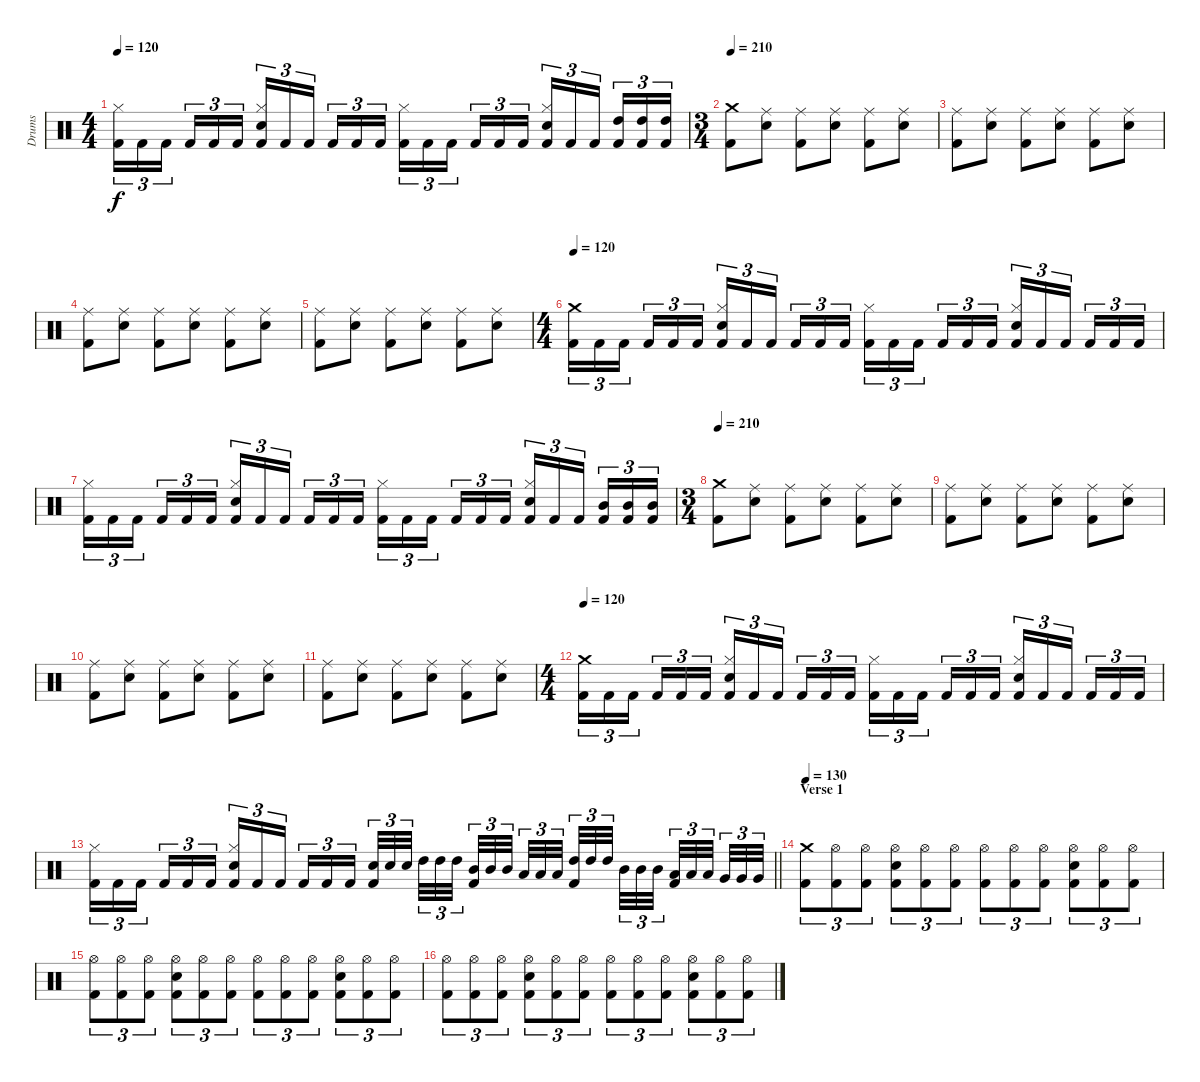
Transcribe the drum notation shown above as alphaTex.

\track ("Drums" "Drums") {instrument percussion}
\staff {score}
\articulation defaults
\ts (4 4)
\tempo 120
\clef neutral
\ks c
("Kick (hit) 2" "Hi-Hat (closed)").16{tu (3 2) dy f} "Kick (hit) 2".16{tu (3 2)} "Kick (hit) 2".16{tu (3 2) beam splitsecondary} "Kick (hit) 2".16{tu (3 2)} "Kick (hit) 2".16{tu (3 2)} "Kick (hit) 2".16{tu (3 2)} ("Kick (hit) 2" "Snare (hit) 2" "Hi-Hat (closed)").16{tu (3 2)} "Kick (hit) 2".16{tu (3 2)} "Kick (hit) 2".16{tu (3 2) beam splitsecondary} "Kick (hit) 2".16{tu (3 2)} "Kick (hit) 2".16{tu (3 2)} "Kick (hit) 2".16{tu (3 2)} ("Kick (hit) 2" "Hi-Hat (closed)").16{tu (3 2)} "Kick (hit) 2".16{tu (3 2)} "Kick (hit) 2".16{tu (3 2) beam splitsecondary} "Kick (hit) 2".16{tu (3 2)} "Kick (hit) 2".16{tu (3 2)} "Kick (hit) 2".16{tu (3 2)} ("Kick (hit) 2" "Snare (hit) 2" "Hi-Hat (closed)").16{tu (3 2)} "Kick (hit) 2".16{tu (3 2)} "Kick (hit) 2".16{tu (3 2) beam splitsecondary} ("Kick (hit) 2" "High Tom (hit)").16{tu (3 2)} ("Kick (hit) 2" "High Tom (hit)").16{tu (3 2)} ("Kick (hit) 2" "High Tom (hit)").16{tu (3 2)} |
\ts (3 4)
\tempo 210
("Kick (hit) 2" "Crash medium (hit)").8 ("Snare (hit) 2" "Ride (middle)").8 ("Kick (hit) 2" "Ride (middle)").8 ("Snare (hit) 2" "Ride (middle)").8 ("Kick (hit) 2" "Ride (middle)").8 ("Snare (hit) 2" "Ride (middle)").8 |
("Kick (hit) 2" "Ride (middle)").8 ("Snare (hit) 2" "Ride (middle)").8 ("Kick (hit) 2" "Ride (middle)").8 ("Snare (hit) 2" "Ride (middle)").8 ("Kick (hit) 2" "Ride (middle)").8 ("Snare (hit) 2" "Ride (middle)").8 |
("Kick (hit) 2" "Ride (middle)").8 ("Snare (hit) 2" "Ride (middle)").8 ("Kick (hit) 2" "Ride (middle)").8 ("Snare (hit) 2" "Ride (middle)").8 ("Kick (hit) 2" "Ride (middle)").8 ("Snare (hit) 2" "Ride (middle)").8 |
("Kick (hit) 2" "Ride (middle)").8 ("Snare (hit) 2" "Ride (middle)").8 ("Kick (hit) 2" "Ride (middle)").8 ("Snare (hit) 2" "Ride (middle)").8 ("Kick (hit) 2" "Ride (middle)").8 ("Snare (hit) 2" "Ride (middle)").8 |
\ts (4 4)
\tempo 120
("Kick (hit) 2" "Crash medium (hit)").16{tu (3 2)} "Kick (hit) 2".16{tu (3 2)} "Kick (hit) 2".16{tu (3 2) beam splitsecondary} "Kick (hit) 2".16{tu (3 2)} "Kick (hit) 2".16{tu (3 2)} "Kick (hit) 2".16{tu (3 2)} ("Kick (hit) 2" "Snare (hit) 2" "Hi-Hat (closed)").16{tu (3 2)} "Kick (hit) 2".16{tu (3 2)} "Kick (hit) 2".16{tu (3 2) beam splitsecondary} "Kick (hit) 2".16{tu (3 2)} "Kick (hit) 2".16{tu (3 2)} "Kick (hit) 2".16{tu (3 2)} ("Kick (hit) 2" "Hi-Hat (closed)").16{tu (3 2)} "Kick (hit) 2".16{tu (3 2)} "Kick (hit) 2".16{tu (3 2) beam splitsecondary} "Kick (hit) 2".16{tu (3 2)} "Kick (hit) 2".16{tu (3 2)} "Kick (hit) 2".16{tu (3 2)} ("Kick (hit) 2" "Snare (hit) 2" "Hi-Hat (closed)").16{tu (3 2)} "Kick (hit) 2".16{tu (3 2)} "Kick (hit) 2".16{tu (3 2) beam splitsecondary} "Kick (hit) 2".16{tu (3 2)} "Kick (hit) 2".16{tu (3 2)} "Kick (hit) 2".16{tu (3 2)} |
("Kick (hit) 2" "Hi-Hat (closed)").16{tu (3 2)} "Kick (hit) 2".16{tu (3 2)} "Kick (hit) 2".16{tu (3 2) beam splitsecondary} "Kick (hit) 2".16{tu (3 2)} "Kick (hit) 2".16{tu (3 2)} "Kick (hit) 2".16{tu (3 2)} ("Kick (hit) 2" "Snare (hit) 2" "Hi-Hat (closed)").16{tu (3 2)} "Kick (hit) 2".16{tu (3 2)} "Kick (hit) 2".16{tu (3 2) beam splitsecondary} "Kick (hit) 2".16{tu (3 2)} "Kick (hit) 2".16{tu (3 2)} "Kick (hit) 2".16{tu (3 2)} ("Kick (hit) 2" "Hi-Hat (closed)").16{tu (3 2)} "Kick (hit) 2".16{tu (3 2)} "Kick (hit) 2".16{tu (3 2) beam splitsecondary} "Kick (hit) 2".16{tu (3 2)} "Kick (hit) 2".16{tu (3 2)} "Kick (hit) 2".16{tu (3 2)} ("Kick (hit) 2" "Snare (hit) 2" "Hi-Hat (closed)").16{tu (3 2)} "Kick (hit) 2".16{tu (3 2)} "Kick (hit) 2".16{tu (3 2) beam splitsecondary} ("Kick (hit) 2" "Mid Tom (hit)").16{tu (3 2)} ("Kick (hit) 2" "Mid Tom (hit)").16{tu (3 2)} ("Kick (hit) 2" "Mid Tom (hit)").16{tu (3 2)} |
\ts (3 4)
\tempo 210
("Kick (hit) 2" "Crash medium (hit)").8 ("Snare (hit) 2" "Ride (middle)").8 ("Kick (hit) 2" "Ride (middle)").8 ("Snare (hit) 2" "Ride (middle)").8 ("Kick (hit) 2" "Ride (middle)").8 ("Snare (hit) 2" "Ride (middle)").8 |
("Kick (hit) 2" "Ride (middle)").8 ("Snare (hit) 2" "Ride (middle)").8 ("Kick (hit) 2" "Ride (middle)").8 ("Snare (hit) 2" "Ride (middle)").8 ("Kick (hit) 2" "Ride (middle)").8 ("Snare (hit) 2" "Ride (middle)").8 |
("Kick (hit) 2" "Ride (middle)").8 ("Snare (hit) 2" "Ride (middle)").8 ("Kick (hit) 2" "Ride (middle)").8 ("Snare (hit) 2" "Ride (middle)").8 ("Kick (hit) 2" "Ride (middle)").8 ("Snare (hit) 2" "Ride (middle)").8 |
("Kick (hit) 2" "Ride (middle)").8 ("Snare (hit) 2" "Ride (middle)").8 ("Kick (hit) 2" "Ride (middle)").8 ("Snare (hit) 2" "Ride (middle)").8 ("Kick (hit) 2" "Ride (middle)").8 ("Snare (hit) 2" "Ride (middle)").8 |
\ts (4 4)
\tempo 120
("Kick (hit) 2" "Crash medium (hit)").16{tu (3 2)} "Kick (hit) 2".16{tu (3 2)} "Kick (hit) 2".16{tu (3 2) beam splitsecondary} "Kick (hit) 2".16{tu (3 2)} "Kick (hit) 2".16{tu (3 2)} "Kick (hit) 2".16{tu (3 2)} ("Kick (hit) 2" "Snare (hit) 2" "Hi-Hat (closed)").16{tu (3 2)} "Kick (hit) 2".16{tu (3 2)} "Kick (hit) 2".16{tu (3 2) beam splitsecondary} "Kick (hit) 2".16{tu (3 2)} "Kick (hit) 2".16{tu (3 2)} "Kick (hit) 2".16{tu (3 2)} ("Kick (hit) 2" "Hi-Hat (closed)").16{tu (3 2)} "Kick (hit) 2".16{tu (3 2)} "Kick (hit) 2".16{tu (3 2) beam splitsecondary} "Kick (hit) 2".16{tu (3 2)} "Kick (hit) 2".16{tu (3 2)} "Kick (hit) 2".16{tu (3 2)} ("Kick (hit) 2" "Snare (hit) 2" "Hi-Hat (closed)").16{tu (3 2)} "Kick (hit) 2".16{tu (3 2)} "Kick (hit) 2".16{tu (3 2) beam splitsecondary} "Kick (hit) 2".16{tu (3 2)} "Kick (hit) 2".16{tu (3 2)} "Kick (hit) 2".16{tu (3 2)} |
\barLineRight lightlight
("Kick (hit) 2" "Hi-Hat (closed)").16{tu (3 2)} "Kick (hit) 2".16{tu (3 2)} "Kick (hit) 2".16{tu (3 2) beam splitsecondary} "Kick (hit) 2".16{tu (3 2)} "Kick (hit) 2".16{tu (3 2)} "Kick (hit) 2".16{tu (3 2)} ("Kick (hit) 2" "Snare (hit) 2" "Hi-Hat (closed)").16{tu (3 2)} "Kick (hit) 2".16{tu (3 2)} "Kick (hit) 2".16{tu (3 2) beam splitsecondary} "Kick (hit) 2".16{tu (3 2)} "Kick (hit) 2".16{tu (3 2)} "Kick (hit) 2".16{tu (3 2)} ("Kick (hit) 2" "Snare (hit) 2").32{tu (3 2)} "Snare (hit) 2".32{tu (3 2)} "Snare (hit) 2".32{tu (3 2) beam splitsecondary} "High Tom (hit)".32{tu (3 2)} "High Tom (hit)".32{tu (3 2)} "High Tom (hit)".32{tu (3 2) beam splitsecondary} ("Kick (hit) 2" "Mid Tom (hit)").32{tu (3 2)} "Mid Tom (hit)".32{tu (3 2)} "Mid Tom (hit)".32{tu (3 2) beam splitsecondary} "Low Tom (hit)".32{tu (3 2)} "Low Tom (hit)".32{tu (3 2)} "Low Tom (hit)".32{tu (3 2)} ("Kick (hit) 2" "High Tom (hit)").32{tu (3 2)} "High Tom (hit)".32{tu (3 2)} "High Tom (hit)".32{tu (3 2) beam splitsecondary} "Mid Tom (hit)".32{tu (3 2)} "Mid Tom (hit)".32{tu (3 2)} "Mid Tom (hit)".32{tu (3 2) beam splitsecondary} ("Kick (hit) 2" "Low Tom (hit)").32{tu (3 2)} "Low Tom (hit)".32{tu (3 2)} "Low Tom (hit)".32{tu (3 2) beam splitsecondary} "Very Low Tom (hit)".32{tu (3 2)} "Very Low Tom (hit)".32{tu (3 2)} "Very Low Tom (hit)".32{tu (3 2)} |
\section ("" "Verse 1")
\tempo 130
("Kick (hit) 2" "Crash medium (hit)").8{tu (3 2)} ("Kick (hit) 2" "Hi-Hat (open)").8{tu (3 2)} ("Kick (hit) 2" "Hi-Hat (open)").8{tu (3 2)} ("Kick (hit) 2" "Snare (hit) 2" "Hi-Hat (open)").8{tu (3 2)} ("Kick (hit) 2" "Hi-Hat (open)").8{tu (3 2)} ("Kick (hit) 2" "Hi-Hat (open)").8{tu (3 2)} ("Kick (hit) 2" "Hi-Hat (open)").8{tu (3 2)} ("Kick (hit) 2" "Hi-Hat (open)").8{tu (3 2)} ("Kick (hit) 2" "Hi-Hat (open)").8{tu (3 2)} ("Kick (hit) 2" "Snare (hit) 2" "Hi-Hat (open)").8{tu (3 2)} ("Kick (hit) 2" "Hi-Hat (open)").8{tu (3 2)} ("Kick (hit) 2" "Hi-Hat (open)").8{tu (3 2)} |
("Kick (hit) 2" "Hi-Hat (open)").8{tu (3 2)} ("Kick (hit) 2" "Hi-Hat (open)").8{tu (3 2)} ("Kick (hit) 2" "Hi-Hat (open)").8{tu (3 2)} ("Kick (hit) 2" "Snare (hit) 2" "Hi-Hat (open)").8{tu (3 2)} ("Kick (hit) 2" "Hi-Hat (open)").8{tu (3 2)} ("Kick (hit) 2" "Hi-Hat (open)").8{tu (3 2)} ("Kick (hit) 2" "Hi-Hat (open)").8{tu (3 2)} ("Kick (hit) 2" "Hi-Hat (open)").8{tu (3 2)} ("Kick (hit) 2" "Hi-Hat (open)").8{tu (3 2)} ("Kick (hit) 2" "Snare (hit) 2" "Hi-Hat (open)").8{tu (3 2)} ("Kick (hit) 2" "Hi-Hat (open)").8{tu (3 2)} ("Kick (hit) 2" "Hi-Hat (open)").8{tu (3 2)} |
("Kick (hit) 2" "Hi-Hat (open)").8{tu (3 2)} ("Kick (hit) 2" "Hi-Hat (open)").8{tu (3 2)} ("Kick (hit) 2" "Hi-Hat (open)").8{tu (3 2)} ("Kick (hit) 2" "Snare (hit) 2" "Hi-Hat (open)").8{tu (3 2)} ("Kick (hit) 2" "Hi-Hat (open)").8{tu (3 2)} ("Kick (hit) 2" "Hi-Hat (open)").8{tu (3 2)} ("Kick (hit) 2" "Hi-Hat (open)").8{tu (3 2)} ("Kick (hit) 2" "Hi-Hat (open)").8{tu (3 2)} ("Kick (hit) 2" "Hi-Hat (open)").8{tu (3 2)} ("Kick (hit) 2" "Snare (hit) 2" "Hi-Hat (open)").8{tu (3 2)} ("Kick (hit) 2" "Hi-Hat (open)").8{tu (3 2)} ("Kick (hit) 2" "Hi-Hat (open)").8{tu (3 2)}
